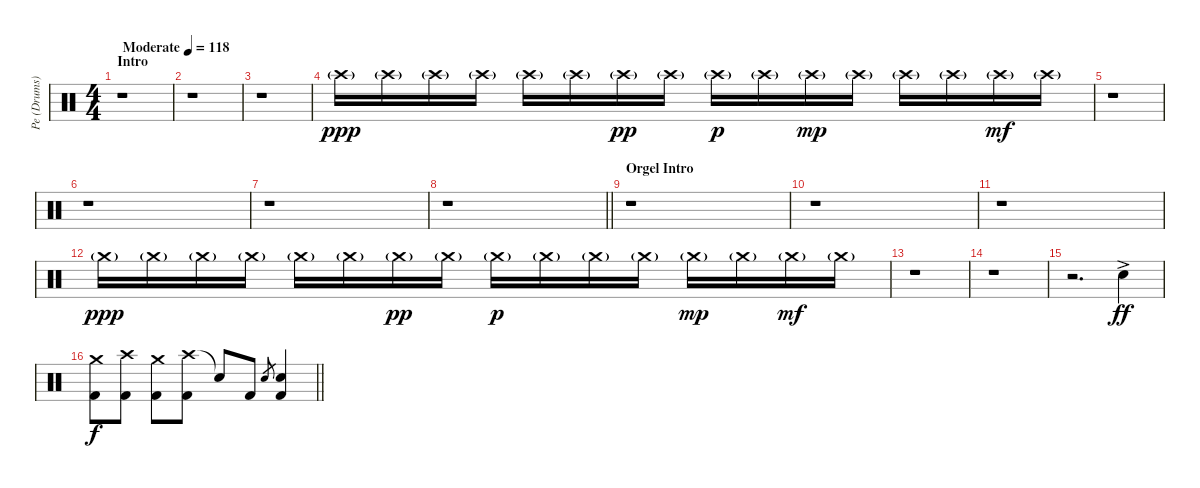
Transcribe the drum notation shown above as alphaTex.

\track ("Pe (Drums)" "Pe (Drums)") {instrument percussion}
\staff {score}
\articulation defaults
\ts (4 4)
\section ("" "Intro")
\tempo (118 "Moderate")
\clef neutral
\ks c
r.1{dy ppp} |
r.1 |
r.1 |
"Crash high (hit)"{g}.16 "Crash high (hit)"{g}.16 "Crash high (hit)"{g}.16 "Crash high (hit)"{g}.16 "Crash high (hit)"{g}.16 "Crash high (hit)"{g}.16 "Crash high (hit)"{g}.16{dy pp} "Crash high (hit)"{g}.16 "Crash high (hit)"{g}.16{dy p} "Crash high (hit)"{g}.16 "Crash high (hit)"{g}.16{dy mp} "Crash high (hit)"{g}.16 "Crash high (hit)"{g}.16 "Crash high (hit)"{g}.16 "Crash high (hit)"{g}.16{dy mf} "Crash high (hit)"{g}.16 |
r.1 |
r.1 |
r.1 |
\barLineRight lightlight
r.1 |
\section ("" "Orgel Intro")
r.1 |
r.1 |
r.1 |
"Crash medium (hit)"{g}.16{dy ppp} "Crash medium (hit)"{g}.16 "Crash medium (hit)"{g}.16 "Crash medium (hit)"{g}.16 "Crash medium (hit)"{g}.16 "Crash medium (hit)"{g}.16 "Crash medium (hit)"{g}.16{dy pp} "Crash medium (hit)"{g}.16 "Crash medium (hit)"{g}.16{dy p} "Crash medium (hit)"{g}.16 "Crash medium (hit)"{g}.16 "Crash medium (hit)"{g}.16 "Crash medium (hit)"{g}.16{dy mp} "Crash medium (hit)"{g}.16 "Crash medium (hit)"{g}.16{dy mf} "Crash medium (hit)"{g}.16 |
r.1 |
r.1 |
r.2{d} "Snare (hit) 2"{ac}.4{dy ff} |
\barLineRight lightlight
("Crash medium (hit)" "Kick (hit) 2").8{dy f} ("Crash high (hit)" "Kick (hit) 2").8 ("Crash medium (hit)" "Kick (hit) 2").8 ("Crash high (hit)" "Kick (hit) 2").8 "Snare (hit)"{t}.8 "Kick (hit) 2".8 "Snare (hit) 2".8{gr} ("Snare (hit) 2" "Kick (hit) 2").4
